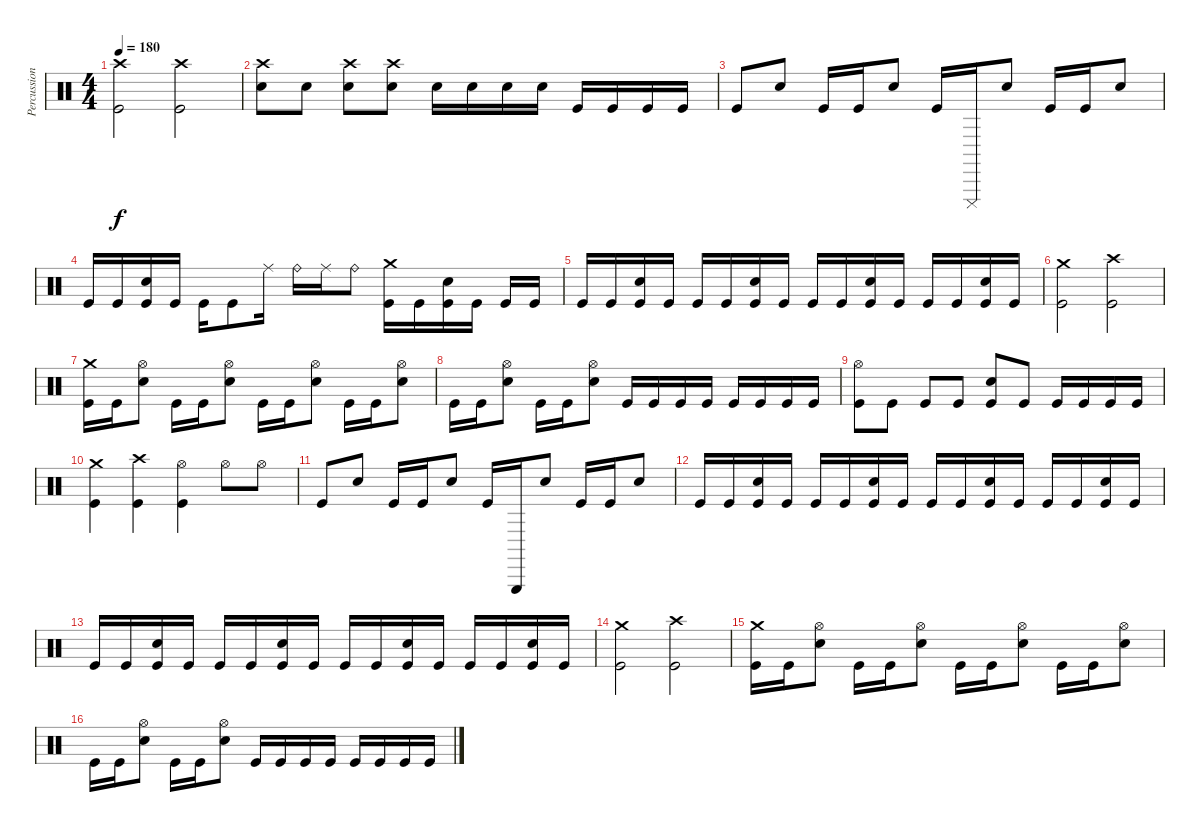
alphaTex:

\track ("Percussions" "Percussion") {instrument percussion}
\staff {score}
\articulation defaults
\ts (4 4)
\tempo 180
\clef neutral
\ks c
("Crash high (hit)" "Kick (hit)").2{dy f} ("Crash high (hit)" "Kick (hit)").2 |
("Crash high (hit)" "Snare (hit) 2").8 "Snare (hit) 2".8 ("Crash high (hit)" "Snare (hit) 2").8 ("Crash high (hit)" "Snare (hit) 2").8 "Snare (hit) 2".16 "Snare (hit) 2".16 "Snare (hit) 2".16 "Snare (hit) 2".16 "Kick (hit)".16 "Kick (hit)".16 "Kick (hit)".16 "Kick (hit)".16 |
"Kick (hit)".8 "Snare (hit) 2".8 "Kick (hit)".16 "Kick (hit)".16 "Snare (hit) 2".8 "Kick (hit)".16 "Cuica (mute)".16 "Snare (hit) 2".8 "Kick (hit)".16 "Kick (hit)".16 "Snare (hit) 2".8 |
"Kick (hit)".16 "Kick (hit)".16 ("Snare (hit) 2" "Kick (hit)").16 "Kick (hit)".16 "Kick (hit)".16 "Kick (hit)".8 "Ride (middle)".16 "Ride (bell)".16 "Ride (middle)".16 "Ride (bell)".8 ("Crash medium (hit)" "Kick (hit)").16 "Kick (hit)".16 ("Snare (hit) 2" "Kick (hit)").16 "Kick (hit)".16 "Kick (hit)".16 "Kick (hit)".16 |
"Kick (hit)".16 "Kick (hit)".16 ("Snare (hit) 2" "Kick (hit)").16 "Kick (hit)".16 "Kick (hit)".16 "Kick (hit)".16 ("Snare (hit) 2" "Kick (hit)").16 "Kick (hit)".16 "Kick (hit)".16 "Kick (hit)".16 ("Snare (hit) 2" "Kick (hit)").16 "Kick (hit)".16 "Kick (hit)".16 "Kick (hit)".16 ("Snare (hit) 2" "Kick (hit)").16 "Kick (hit)".16 |
("Crash medium (hit)" "Kick (hit)").2 ("Crash high (hit)" "Kick (hit)").2 |
("Crash medium (hit)" "Kick (hit)").16 "Kick (hit)".16 ("Hi-Hat (open)" "Snare (hit) 2").8 "Kick (hit)".16 "Kick (hit)".16 ("Hi-Hat (open)" "Snare (hit) 2").8 "Kick (hit)".16 "Kick (hit)".16 ("Hi-Hat (open)" "Snare (hit) 2").8 "Kick (hit)".16 "Kick (hit)".16 ("Hi-Hat (open)" "Snare (hit) 2").8 |
"Kick (hit)".16 "Kick (hit)".16 ("Hi-Hat (open)" "Snare (hit) 2").8 "Kick (hit)".16 "Kick (hit)".16 ("Hi-Hat (open)" "Snare (hit) 2").8 "Kick (hit)".16 "Kick (hit)".16 "Kick (hit)".16 "Kick (hit)".16 "Kick (hit)".16 "Kick (hit)".16 "Kick (hit)".16 "Kick (hit)".16 |
("Hi-Hat (open)" "Kick (hit)").8 "Kick (hit)".8 "Kick (hit)".8 "Kick (hit)".8 ("Snare (hit) 2" "Kick (hit)").8 "Kick (hit)".8 "Kick (hit)".16 "Kick (hit)".16 "Kick (hit)".16 "Kick (hit)".16 |
("Crash medium (hit)" "Kick (hit)").4 ("Crash high (hit)" "Kick (hit)").4 ("Hi-Hat (open)" "Kick (hit)").4 "Hi-Hat (open)".8 "Hi-Hat (open)".8 |
"Kick (hit)".8 "Snare (hit) 2".8 "Kick (hit)".16 "Kick (hit)".16 "Snare (hit) 2".8 "Kick (hit)".16 "Triangle (hit)".16 "Snare (hit) 2".8 "Kick (hit)".16 "Kick (hit)".16 "Snare (hit) 2".8 |
"Kick (hit)".16 "Kick (hit)".16 ("Snare (hit) 2" "Kick (hit)").16 "Kick (hit)".16 "Kick (hit)".16 "Kick (hit)".16 ("Snare (hit) 2" "Kick (hit)").16 "Kick (hit)".16 "Kick (hit)".16 "Kick (hit)".16 ("Snare (hit) 2" "Kick (hit)").16 "Kick (hit)".16 "Kick (hit)".16 "Kick (hit)".16 ("Snare (hit) 2" "Kick (hit)").16 "Kick (hit)".16 |
"Kick (hit)".16 "Kick (hit)".16 ("Snare (hit) 2" "Kick (hit)").16 "Kick (hit)".16 "Kick (hit)".16 "Kick (hit)".16 ("Snare (hit) 2" "Kick (hit)").16 "Kick (hit)".16 "Kick (hit)".16 "Kick (hit)".16 ("Snare (hit) 2" "Kick (hit)").16 "Kick (hit)".16 "Kick (hit)".16 "Kick (hit)".16 ("Snare (hit) 2" "Kick (hit)").16 "Kick (hit)".16 |
("Crash medium (hit)" "Kick (hit)").2 ("Crash high (hit)" "Kick (hit)").2 |
("Crash medium (hit)" "Kick (hit)").16 "Kick (hit)".16 ("Hi-Hat (open)" "Snare (hit) 2").8 "Kick (hit)".16 "Kick (hit)".16 ("Hi-Hat (open)" "Snare (hit) 2").8 "Kick (hit)".16 "Kick (hit)".16 ("Hi-Hat (open)" "Snare (hit) 2").8 "Kick (hit)".16 "Kick (hit)".16 ("Hi-Hat (open)" "Snare (hit) 2").8 |
"Kick (hit)".16 "Kick (hit)".16 ("Hi-Hat (open)" "Snare (hit) 2").8 "Kick (hit)".16 "Kick (hit)".16 ("Hi-Hat (open)" "Snare (hit) 2").8 "Kick (hit)".16 "Kick (hit)".16 "Kick (hit)".16 "Kick (hit)".16 "Kick (hit)".16 "Kick (hit)".16 "Kick (hit)".16 "Kick (hit)".16
